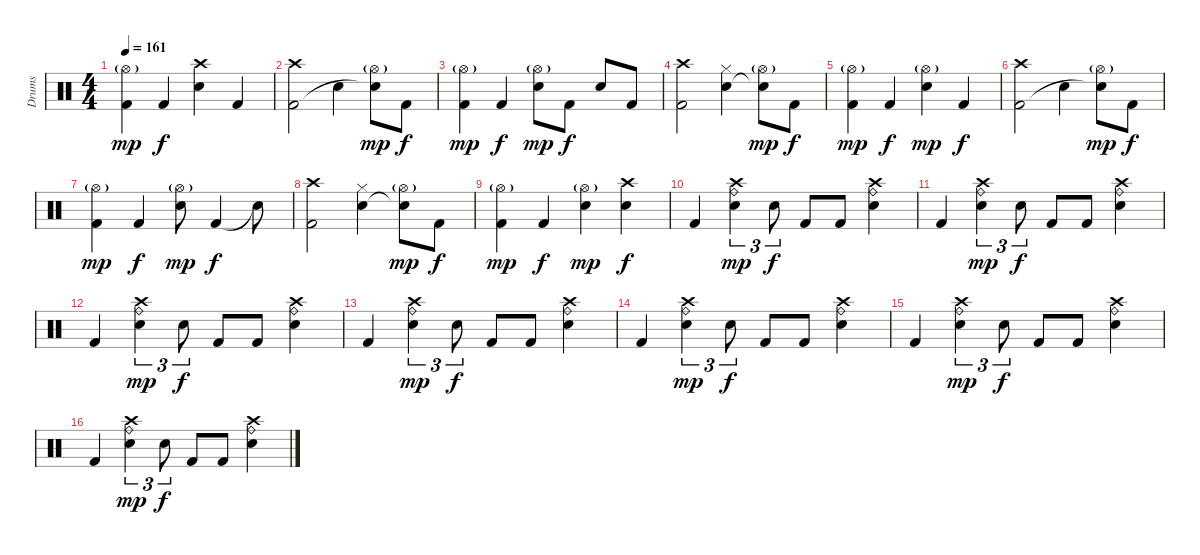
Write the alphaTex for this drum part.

\track ("Drums" "Drums") {instrument percussion}
\staff {score}
\articulation defaults
\ts (4 4)
\tempo 161
\clef neutral
\ks c
("Hi-Hat (open)"{g} "Kick (hit) 2").4{dy mp} "Kick (hit) 2".4{dy f} ("Crash high (hit)" "Electric Snare (hit)").4 "Kick (hit) 2".4 |
("Crash high (hit)" "Kick (hit) 2").2 "Electric Snare (hit)".4 ("Hi-Hat (open)"{g} "Snare (hit)"{t}).8{dy mp} "Kick (hit) 2".8{dy f} |
("Hi-Hat (open)"{g} "Kick (hit) 2").4{dy mp} "Kick (hit) 2".4{dy f} ("Hi-Hat (open)"{g} "Electric Snare (hit)").8{dy mp} "Kick (hit) 2".8{dy f} "Electric Snare (hit)".8 "Kick (hit) 2".8 |
("Crash high (hit)" "Kick (hit) 2").2 ("Hi-Hat (closed)" "Electric Snare (hit)").4 ("Hi-Hat (open)"{g} "Snare (hit)"{t}).8{dy mp} "Kick (hit) 2".8{dy f} |
("Hi-Hat (open)"{g} "Kick (hit) 2").4{dy mp} "Kick (hit) 2".4{dy f} ("Hi-Hat (open)"{g} "Electric Snare (hit)").4{dy mp} "Kick (hit) 2".4{dy f} |
("Crash high (hit)" "Kick (hit) 2").2 "Electric Snare (hit)".4 ("Hi-Hat (open)"{g} "Snare (hit)"{t}).8{dy mp} "Kick (hit) 2".8{dy f} |
("Hi-Hat (open)"{g} "Kick (hit) 2").4{dy mp} "Kick (hit) 2".4{dy f} ("Hi-Hat (open)"{g} "Electric Snare (hit)").8{dy mp} "Kick (hit) 2".4{dy f} "Snare (hit)"{t}.8 |
("Crash high (hit)" "Kick (hit) 2").2 ("Hi-Hat (closed)" "Electric Snare (hit)").4 ("Hi-Hat (open)"{g} "Snare (hit)"{t}).8{dy mp} "Kick (hit) 2".8{dy f} |
("Hi-Hat (open)"{g} "Kick (hit) 2").4{dy mp} "Kick (hit) 2".4{dy f} ("Hi-Hat (open)"{g} "Electric Snare (hit)").4{dy mp} ("Crash high (hit)" "Electric Snare (hit)").4{dy f} |
"Kick (hit) 2".4 ("Crash high (hit)" "Electric Snare (hit)" "Ride (bell)").4{tu (3 2) dy mp} "Electric Snare (hit)".8{tu (3 2) dy f} "Kick (hit) 2".8 "Kick (hit) 2".8 ("Ride (bell)" "Crash high (hit)" "Electric Snare (hit)").4 |
"Kick (hit) 2".4 ("Crash high (hit)" "Electric Snare (hit)" "Ride (bell)").4{tu (3 2) dy mp} "Electric Snare (hit)".8{tu (3 2) dy f} "Kick (hit) 2".8 "Kick (hit) 2".8 ("Ride (bell)" "Crash high (hit)" "Electric Snare (hit)").4 |
"Kick (hit) 2".4 ("Crash high (hit)" "Electric Snare (hit)" "Ride (bell)").4{tu (3 2) dy mp} "Electric Snare (hit)".8{tu (3 2) dy f} "Kick (hit) 2".8 "Kick (hit) 2".8 ("Ride (bell)" "Crash high (hit)" "Electric Snare (hit)").4 |
"Kick (hit) 2".4 ("Crash high (hit)" "Electric Snare (hit)" "Ride (bell)").4{tu (3 2) dy mp} "Electric Snare (hit)".8{tu (3 2) dy f} "Kick (hit) 2".8 "Kick (hit) 2".8 ("Ride (bell)" "Crash high (hit)" "Electric Snare (hit)").4 |
"Kick (hit) 2".4 ("Crash high (hit)" "Electric Snare (hit)" "Ride (bell)").4{tu (3 2) dy mp} "Electric Snare (hit)".8{tu (3 2) dy f} "Kick (hit) 2".8 "Kick (hit) 2".8 ("Ride (bell)" "Crash high (hit)" "Electric Snare (hit)").4 |
"Kick (hit) 2".4 ("Crash high (hit)" "Electric Snare (hit)" "Ride (bell)").4{tu (3 2) dy mp} "Electric Snare (hit)".8{tu (3 2) dy f} "Kick (hit) 2".8 "Kick (hit) 2".8 ("Ride (bell)" "Crash high (hit)" "Electric Snare (hit)").4 |
"Kick (hit) 2".4 ("Crash high (hit)" "Electric Snare (hit)" "Ride (bell)").4{tu (3 2) dy mp} "Electric Snare (hit)".8{tu (3 2) dy f} "Kick (hit) 2".8 "Kick (hit) 2".8 ("Ride (bell)" "Crash high (hit)" "Electric Snare (hit)").4
